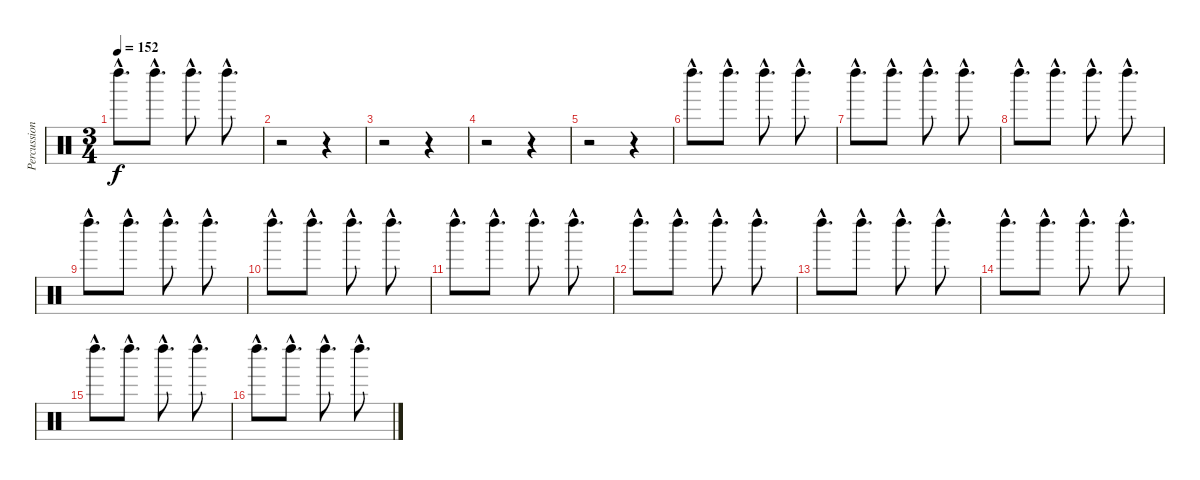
\track ("Percussion" "Percussion") {instrument percussion}
\staff {score}
\articulation defaults
\ts (3 4)
\tempo 152
\clef neutral
\ks c "Left Maraca (hit)"{hac}.8{d dy f} "Left Maraca (hit)"{hac}.8{d} "Left Maraca (hit)"{hac}.8{d} "Left Maraca (hit)"{hac}.8{d}
|
r.2 r.4 |
r.2 r.4 |
r.2 r.4 |
r.2 r.4 |
"Left Maraca (hit)"{hac}.8{d} "Left Maraca (hit)"{hac}.8{d} "Left Maraca (hit)"{hac}.8{d} "Left Maraca (hit)"{hac}.8{d} |
"Left Maraca (hit)"{hac}.8{d} "Left Maraca (hit)"{hac}.8{d} "Left Maraca (hit)"{hac}.8{d} "Left Maraca (hit)"{hac}.8{d} |
"Left Maraca (hit)"{hac}.8{d} "Left Maraca (hit)"{hac}.8{d} "Left Maraca (hit)"{hac}.8{d} "Left Maraca (hit)"{hac}.8{d} |
"Left Maraca (hit)"{hac}.8{d} "Left Maraca (hit)"{hac}.8{d} "Left Maraca (hit)"{hac}.8{d} "Left Maraca (hit)"{hac}.8{d} |
"Left Maraca (hit)"{hac}.8{d} "Left Maraca (hit)"{hac}.8{d} "Left Maraca (hit)"{hac}.8{d} "Left Maraca (hit)"{hac}.8{d} |
"Left Maraca (hit)"{hac}.8{d} "Left Maraca (hit)"{hac}.8{d} "Left Maraca (hit)"{hac}.8{d} "Left Maraca (hit)"{hac}.8{d} |
"Left Maraca (hit)"{hac}.8{d} "Left Maraca (hit)"{hac}.8{d} "Left Maraca (hit)"{hac}.8{d} "Left Maraca (hit)"{hac}.8{d} |
"Left Maraca (hit)"{hac}.8{d} "Left Maraca (hit)"{hac}.8{d} "Left Maraca (hit)"{hac}.8{d} "Left Maraca (hit)"{hac}.8{d} |
"Left Maraca (hit)"{hac}.8{d} "Left Maraca (hit)"{hac}.8{d} "Left Maraca (hit)"{hac}.8{d} "Left Maraca (hit)"{hac}.8{d} |
"Left Maraca (hit)"{hac}.8{d} "Left Maraca (hit)"{hac}.8{d} "Left Maraca (hit)"{hac}.8{d} "Left Maraca (hit)"{hac}.8{d} |
"Left Maraca (hit)"{hac}.8{d} "Left Maraca (hit)"{hac}.8{d} "Left Maraca (hit)"{hac}.8{d} "Left Maraca (hit)"{hac}.8{d}
